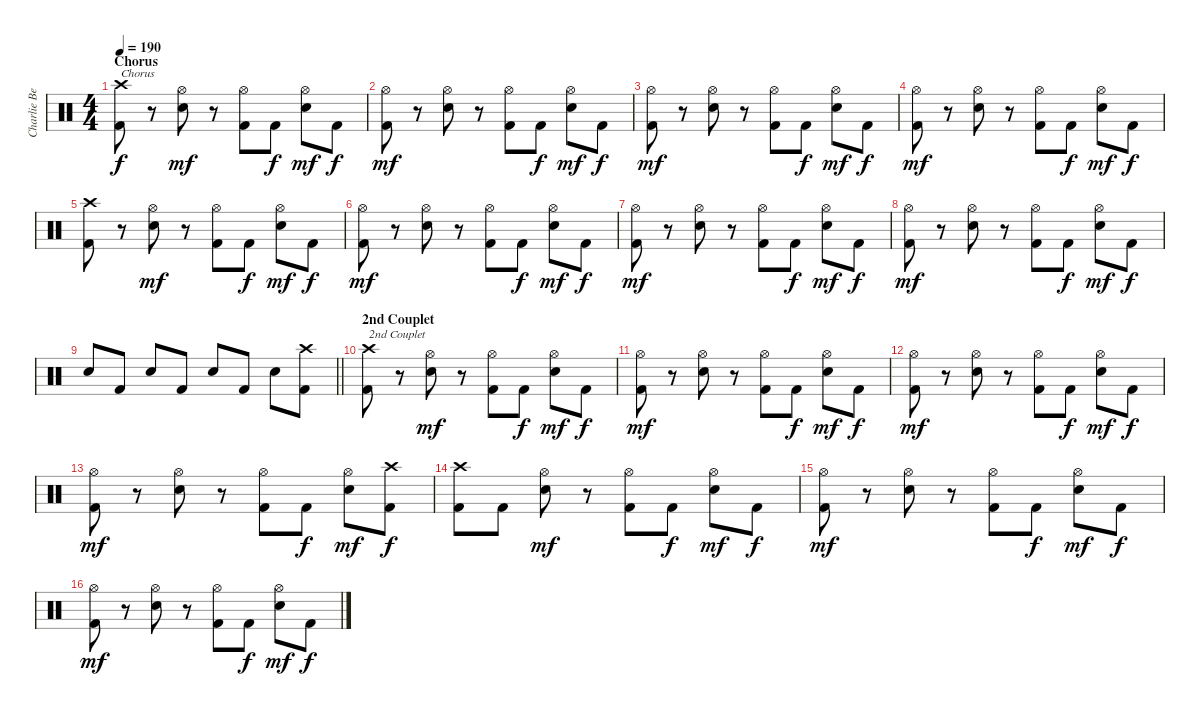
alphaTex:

\track ("Charlie Benante" "Charlie Be") {instrument percussion}
\staff {score}
\articulation defaults
\ts (4 4)
\section ("" "Chorus")
\tempo 190
\clef neutral
\ks c
("Crash high (hit)" "Kick (hit) 2").8{txt "Chorus" dy f} r.8 ("Hi-Hat (open)" "Electric Snare (hit)").8{dy mf} r.8 ("Hi-Hat (open)" "Kick (hit) 2").8 "Kick (hit) 2".8{dy f} ("Hi-Hat (open)" "Electric Snare (hit)").8{dy mf} "Kick (hit) 2".8{dy f} |
("Hi-Hat (open)" "Kick (hit) 2").8{dy mf} r.8 ("Hi-Hat (open)" "Electric Snare (hit)").8 r.8 ("Hi-Hat (open)" "Kick (hit) 2").8 "Kick (hit) 2".8{dy f} ("Hi-Hat (open)" "Electric Snare (hit)").8{dy mf} "Kick (hit) 2".8{dy f} |
("Hi-Hat (open)" "Kick (hit) 2").8{dy mf} r.8 ("Hi-Hat (open)" "Electric Snare (hit)").8 r.8 ("Hi-Hat (open)" "Kick (hit) 2").8 "Kick (hit) 2".8{dy f} ("Hi-Hat (open)" "Electric Snare (hit)").8{dy mf} "Kick (hit) 2".8{dy f} |
("Hi-Hat (open)" "Kick (hit) 2").8{dy mf} r.8 ("Hi-Hat (open)" "Electric Snare (hit)").8 r.8 ("Hi-Hat (open)" "Kick (hit) 2").8 "Kick (hit) 2".8{dy f} ("Hi-Hat (open)" "Electric Snare (hit)").8{dy mf} "Kick (hit) 2".8{dy f} |
("Crash high (hit)" "Kick (hit) 2").8 r.8 ("Hi-Hat (open)" "Electric Snare (hit)").8{dy mf} r.8 ("Hi-Hat (open)" "Kick (hit) 2").8 "Kick (hit) 2".8{dy f} ("Hi-Hat (open)" "Electric Snare (hit)").8{dy mf} "Kick (hit) 2".8{dy f} |
("Hi-Hat (open)" "Kick (hit) 2").8{dy mf} r.8 ("Hi-Hat (open)" "Electric Snare (hit)").8 r.8 ("Hi-Hat (open)" "Kick (hit) 2").8 "Kick (hit) 2".8{dy f} ("Hi-Hat (open)" "Electric Snare (hit)").8{dy mf} "Kick (hit) 2".8{dy f} |
("Hi-Hat (open)" "Kick (hit) 2").8{dy mf} r.8 ("Hi-Hat (open)" "Electric Snare (hit)").8 r.8 ("Hi-Hat (open)" "Kick (hit) 2").8 "Kick (hit) 2".8{dy f} ("Hi-Hat (open)" "Electric Snare (hit)").8{dy mf} "Kick (hit) 2".8{dy f} |
("Hi-Hat (open)" "Kick (hit) 2").8{dy mf} r.8 ("Hi-Hat (open)" "Electric Snare (hit)").8 r.8 ("Hi-Hat (open)" "Kick (hit) 2").8 "Kick (hit) 2".8{dy f} ("Hi-Hat (open)" "Electric Snare (hit)").8{dy mf} "Kick (hit) 2".8{dy f} |
\barLineRight lightlight "Electric Snare (hit)".8 "Kick (hit) 2".8 "Electric Snare (hit)".8 "Kick (hit) 2".8 "Electric Snare (hit)".8 "Kick (hit) 2".8 "Electric Snare (hit)".8
("Crash high (hit)" "Kick (hit) 2").8 |
\section ("" "2nd Couplet")
("Crash high (hit)" "Kick (hit) 2").8{txt "2nd Couplet"} r.8 ("Hi-Hat (open)" "Electric Snare (hit)").8{dy mf} r.8 ("Hi-Hat (open)" "Kick (hit) 2").8 "Kick (hit) 2".8{dy f} ("Hi-Hat (open)" "Electric Snare (hit)").8{dy mf} "Kick (hit) 2".8{dy f} |
("Hi-Hat (open)" "Kick (hit) 2").8{dy mf} r.8 ("Hi-Hat (open)" "Electric Snare (hit)").8 r.8 ("Hi-Hat (open)" "Kick (hit) 2").8 "Kick (hit) 2".8{dy f} ("Hi-Hat (open)" "Electric Snare (hit)").8{dy mf} "Kick (hit) 2".8{dy f} |
("Hi-Hat (open)" "Kick (hit) 2").8{dy mf} r.8 ("Hi-Hat (open)" "Electric Snare (hit)").8 r.8 ("Hi-Hat (open)" "Kick (hit) 2").8 "Kick (hit) 2".8{dy f} ("Hi-Hat (open)" "Electric Snare (hit)").8{dy mf} "Kick (hit) 2".8{dy f} |
("Hi-Hat (open)" "Kick (hit) 2").8{dy mf} r.8 ("Hi-Hat (open)" "Electric Snare (hit)").8 r.8 ("Hi-Hat (open)" "Kick (hit) 2").8 "Kick (hit) 2".8{dy f} ("Hi-Hat (open)" "Electric Snare (hit)").8{dy mf} ("Crash high (hit)" "Kick (hit) 2").8{dy f} |
("Crash high (hit)" "Kick (hit) 2").8 "Kick (hit) 2".8 ("Hi-Hat (open)" "Electric Snare (hit)").8{dy mf} r.8 ("Hi-Hat (open)" "Kick (hit) 2").8 "Kick (hit) 2".8{dy f} ("Hi-Hat (open)" "Electric Snare (hit)").8{dy mf} "Kick (hit) 2".8{dy f} |
("Hi-Hat (open)" "Kick (hit) 2").8{dy mf} r.8 ("Hi-Hat (open)" "Electric Snare (hit)").8 r.8 ("Hi-Hat (open)" "Kick (hit) 2").8 "Kick (hit) 2".8{dy f} ("Hi-Hat (open)" "Electric Snare (hit)").8{dy mf} "Kick (hit) 2".8{dy f} |
("Hi-Hat (open)" "Kick (hit) 2").8{dy mf} r.8 ("Hi-Hat (open)" "Electric Snare (hit)").8 r.8 ("Hi-Hat (open)" "Kick (hit) 2").8 "Kick (hit) 2".8{dy f} ("Hi-Hat (open)" "Electric Snare (hit)").8{dy mf} "Kick (hit) 2".8{dy f}
